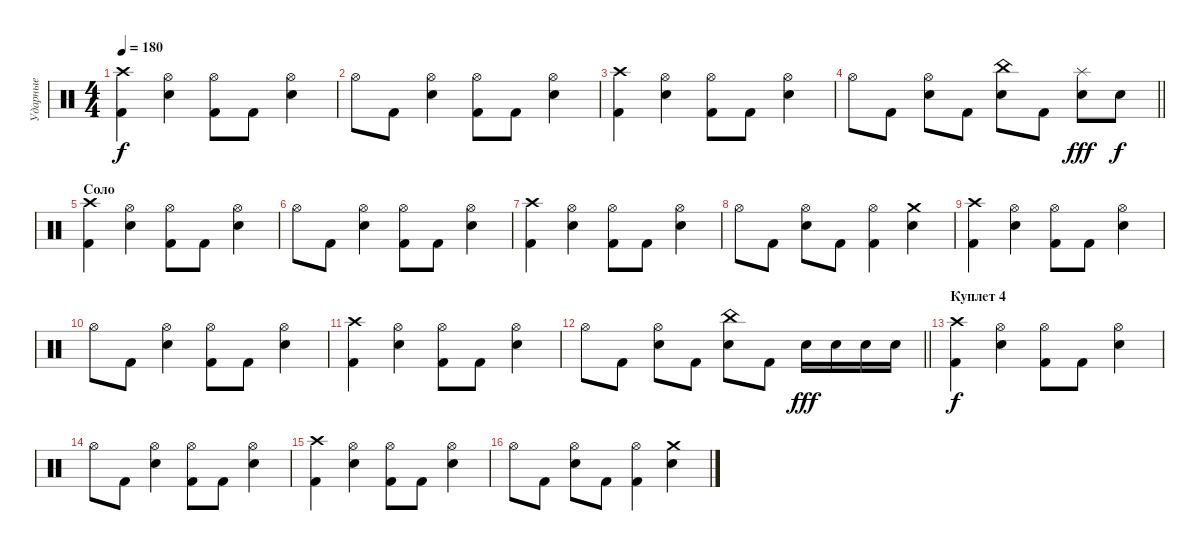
\track ("Ударные" "Ударные") {instrument percussion}
\staff {score}
\articulation defaults
\ts (4 4)
\tempo 180
\clef neutral
\ks c
("Crash high (hit)" "Kick (hit) 2").4{dy f} ("Hi-Hat (open)" "Snare (hit) 2").4 ("Hi-Hat (open)" "Kick (hit) 2").8 "Kick (hit) 2".8 ("Hi-Hat (open)" "Snare (hit) 2").4 |
"Hi-Hat (open)".8 "Kick (hit) 2".8 ("Hi-Hat (open)" "Snare (hit) 2").4 ("Hi-Hat (open)" "Kick (hit) 2").8 "Kick (hit) 2".8 ("Hi-Hat (open)" "Snare (hit) 2").4 |
("Crash high (hit)" "Kick (hit) 2").4 ("Hi-Hat (open)" "Snare (hit) 2").4 ("Hi-Hat (open)" "Kick (hit) 2").8 "Kick (hit) 2".8 ("Hi-Hat (open)" "Snare (hit) 2").4 |
\barLineRight lightlight "Hi-Hat (open)".8 "Kick (hit) 2".8
("Hi-Hat (open)" "Snare (hit) 2").8 "Kick (hit) 2".8 ("China (hit)" "Snare (hit) 2").8 "Kick (hit) 2".8 ("Splash (hit)" "Snare (hit) 2").8{dy fff} "Snare (hit) 2".8{dy f} |
\section ("" "Соло")
("Crash high (hit)" "Kick (hit) 2").4 ("Hi-Hat (open)" "Snare (hit) 2").4 ("Hi-Hat (open)" "Kick (hit) 2").8 "Kick (hit) 2".8 ("Hi-Hat (open)" "Snare (hit) 2").4 |
"Hi-Hat (open)".8 "Kick (hit) 2".8 ("Hi-Hat (open)" "Snare (hit) 2").4 ("Hi-Hat (open)" "Kick (hit) 2").8 "Kick (hit) 2".8 ("Hi-Hat (open)" "Snare (hit) 2").4 |
("Crash high (hit)" "Kick (hit) 2").4 ("Hi-Hat (open)" "Snare (hit) 2").4 ("Hi-Hat (open)" "Kick (hit) 2").8 "Kick (hit) 2".8 ("Hi-Hat (open)" "Snare (hit) 2").4 |
"Hi-Hat (open)".8 "Kick (hit) 2".8 ("Hi-Hat (open)" "Snare (hit) 2").8 "Kick (hit) 2".8 ("Hi-Hat (open)" "Kick (hit) 2").4 ("Crash medium (hit)" "Snare (hit) 2").4 |
("Crash high (hit)" "Kick (hit) 2").4 ("Hi-Hat (open)" "Snare (hit) 2").4 ("Hi-Hat (open)" "Kick (hit) 2").8 "Kick (hit) 2".8 ("Hi-Hat (open)" "Snare (hit) 2").4 |
"Hi-Hat (open)".8 "Kick (hit) 2".8 ("Hi-Hat (open)" "Snare (hit) 2").4 ("Hi-Hat (open)" "Kick (hit) 2").8 "Kick (hit) 2".8 ("Hi-Hat (open)" "Snare (hit) 2").4 |
("Crash high (hit)" "Kick (hit) 2").4 ("Hi-Hat (open)" "Snare (hit) 2").4 ("Hi-Hat (open)" "Kick (hit) 2").8 "Kick (hit) 2".8 ("Hi-Hat (open)" "Snare (hit) 2").4 |
\barLineRight lightlight "Hi-Hat (open)".8 "Kick (hit) 2".8
("Hi-Hat (open)" "Snare (hit) 2").8 "Kick (hit) 2".8 ("China (hit)" "Snare (hit) 2").8 "Kick (hit) 2".8 "Snare (hit) 2".16{dy fff} "Snare (hit) 2".16 "Snare (hit) 2".16 "Snare (hit) 2".16 |
\section ("" "Куплет 4")
("Crash high (hit)" "Kick (hit) 2").4{dy f} ("Hi-Hat (open)" "Snare (hit) 2").4 ("Hi-Hat (open)" "Kick (hit) 2").8 "Kick (hit) 2".8 ("Hi-Hat (open)" "Snare (hit) 2").4 |
"Hi-Hat (open)".8 "Kick (hit) 2".8 ("Hi-Hat (open)" "Snare (hit) 2").4 ("Hi-Hat (open)" "Kick (hit) 2").8 "Kick (hit) 2".8 ("Hi-Hat (open)" "Snare (hit) 2").4 |
("Crash high (hit)" "Kick (hit) 2").4 ("Hi-Hat (open)" "Snare (hit) 2").4 ("Hi-Hat (open)" "Kick (hit) 2").8 "Kick (hit) 2".8 ("Hi-Hat (open)" "Snare (hit) 2").4 |
"Hi-Hat (open)".8 "Kick (hit) 2".8 ("Hi-Hat (open)" "Snare (hit) 2").8 "Kick (hit) 2".8 ("Hi-Hat (open)" "Kick (hit) 2").4 ("Crash medium (hit)" "Snare (hit) 2").4
